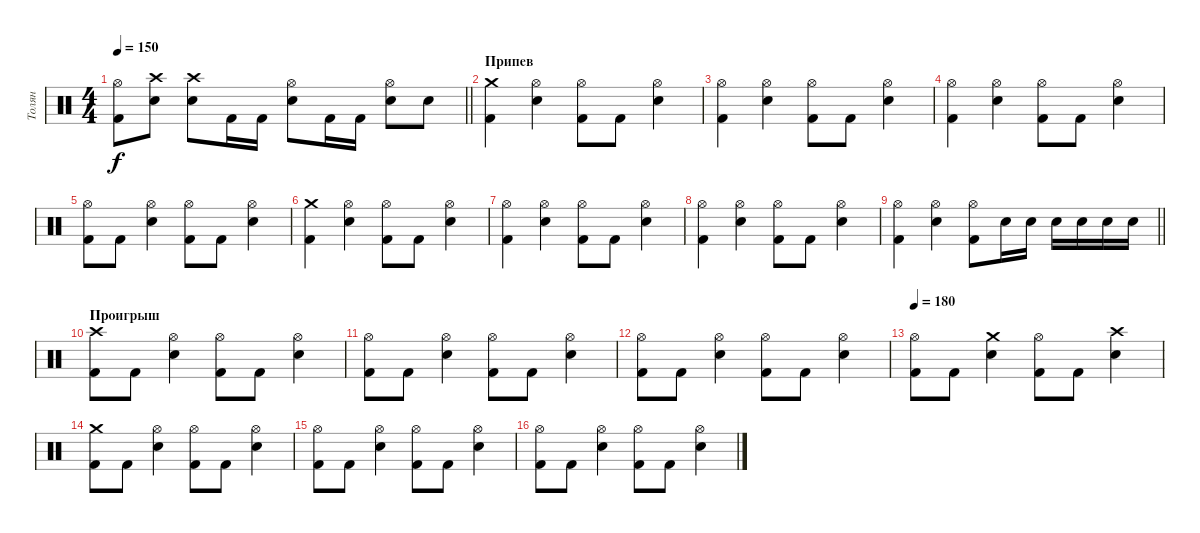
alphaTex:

\track ("Толян" "Толян") {instrument percussion}
\staff {score}
\articulation defaults
\ts (4 4)
\tempo 150
\clef neutral
\barLineRight lightlight
\ks c
("Kick (hit) 2" "Hi-Hat (open)").8{dy f} ("Electric Snare (hit)" "Crash high (hit)").8 ("Electric Snare (hit)" "Crash high (hit)").8 "Kick (hit) 2".16 "Kick (hit) 2".16 ("Electric Snare (hit)" "Hi-Hat (open)").8 "Kick (hit) 2".16 "Kick (hit) 2".16 ("Electric Snare (hit)" "Hi-Hat (open)").8 "Electric Snare (hit)".8 |
\section ("" "Припев")
("Kick (hit) 2" "Crash medium (hit)").4 ("Electric Snare (hit)" "Hi-Hat (open)").4 ("Kick (hit) 2" "Hi-Hat (open)").8 "Kick (hit) 2".8 ("Electric Snare (hit)" "Hi-Hat (open)").4 |
("Kick (hit) 2" "Hi-Hat (open)").4 ("Electric Snare (hit)" "Hi-Hat (open)").4 ("Kick (hit) 2" "Hi-Hat (open)").8 "Kick (hit) 2".8 ("Electric Snare (hit)" "Hi-Hat (open)").4 |
("Kick (hit) 2" "Hi-Hat (open)").4 ("Electric Snare (hit)" "Hi-Hat (open)").4 ("Kick (hit) 2" "Hi-Hat (open)").8 "Kick (hit) 2".8 ("Electric Snare (hit)" "Hi-Hat (open)").4 |
("Kick (hit) 2" "Hi-Hat (open)").8 "Kick (hit) 2".8 ("Electric Snare (hit)" "Hi-Hat (open)").4 ("Kick (hit) 2" "Hi-Hat (open)").8 "Kick (hit) 2".8 ("Electric Snare (hit)" "Hi-Hat (open)").4 |
("Kick (hit) 2" "Crash medium (hit)").4 ("Electric Snare (hit)" "Hi-Hat (open)").4 ("Kick (hit) 2" "Hi-Hat (open)").8 "Kick (hit) 2".8 ("Electric Snare (hit)" "Hi-Hat (open)").4 |
("Kick (hit) 2" "Hi-Hat (open)").4 ("Electric Snare (hit)" "Hi-Hat (open)").4 ("Kick (hit) 2" "Hi-Hat (open)").8 "Kick (hit) 2".8 ("Electric Snare (hit)" "Hi-Hat (open)").4 |
("Kick (hit) 2" "Hi-Hat (open)").4 ("Electric Snare (hit)" "Hi-Hat (open)").4 ("Kick (hit) 2" "Hi-Hat (open)").8 "Kick (hit) 2".8 ("Electric Snare (hit)" "Hi-Hat (open)").4 |
\barLineRight lightlight
("Kick (hit) 2" "Hi-Hat (open)").4 ("Electric Snare (hit)" "Hi-Hat (open)").4 ("Kick (hit) 2" "Hi-Hat (open)").8 "Electric Snare (hit)".16 "Electric Snare (hit)".16 "Electric Snare (hit)".16 "Electric Snare (hit)".16 "Electric Snare (hit)".16 "Electric Snare (hit)".16 |
\section ("" "Проигрыш")
("Kick (hit) 2" "Crash high (hit)").8 "Kick (hit) 2".8 ("Electric Snare (hit)" "Hi-Hat (open)").4 ("Kick (hit) 2" "Hi-Hat (open)").8 "Kick (hit) 2".8 ("Electric Snare (hit)" "Hi-Hat (open)").4 |
("Kick (hit) 2" "Hi-Hat (open)").8 "Kick (hit) 2".8 ("Electric Snare (hit)" "Hi-Hat (open)").4 ("Kick (hit) 2" "Hi-Hat (open)").8 "Kick (hit) 2".8 ("Electric Snare (hit)" "Hi-Hat (open)").4 |
("Kick (hit) 2" "Hi-Hat (open)").8 "Kick (hit) 2".8 ("Electric Snare (hit)" "Hi-Hat (open)").4 ("Kick (hit) 2" "Hi-Hat (open)").8 "Kick (hit) 2".8 ("Electric Snare (hit)" "Hi-Hat (open)").4 |
\tempo 180
("Kick (hit) 2" "Hi-Hat (open)").8 "Kick (hit) 2".8 ("Electric Snare (hit)" "Crash medium (hit)").4 ("Kick (hit) 2" "Hi-Hat (open)").8 "Kick (hit) 2".8 ("Electric Snare (hit)" "Crash high (hit)").4 |
("Kick (hit) 2" "Crash medium (hit)").8 "Kick (hit) 2".8 ("Electric Snare (hit)" "Hi-Hat (open)").4 ("Kick (hit) 2" "Hi-Hat (open)").8 "Kick (hit) 2".8 ("Electric Snare (hit)" "Hi-Hat (open)").4 |
("Kick (hit) 2" "Hi-Hat (open)").8 "Kick (hit) 2".8 ("Electric Snare (hit)" "Hi-Hat (open)").4 ("Kick (hit) 2" "Hi-Hat (open)").8 "Kick (hit) 2".8 ("Electric Snare (hit)" "Hi-Hat (open)").4 |
("Kick (hit) 2" "Hi-Hat (open)").8 "Kick (hit) 2".8 ("Electric Snare (hit)" "Hi-Hat (open)").4 ("Kick (hit) 2" "Hi-Hat (open)").8 "Kick (hit) 2".8 ("Electric Snare (hit)" "Hi-Hat (open)").4
